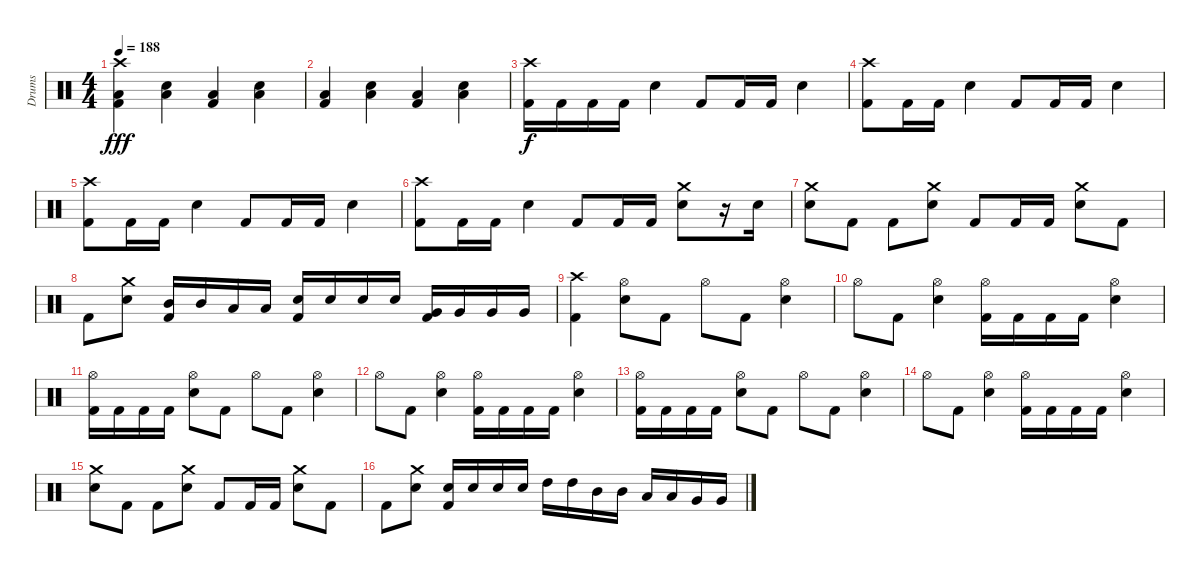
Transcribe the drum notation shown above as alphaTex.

\track ("Drums" "Drums") {instrument percussion}
\staff {score}
\articulation defaults
\ts (4 4)
\tempo 188
\clef neutral
\ks c
("Crash high (hit)" "Low Floor Tom (hit)" "Kick (hit) 2").4{dy fff} ("Electric Snare (hit)" "Low Floor Tom (hit)").4 ("Low Floor Tom (hit)" "Kick (hit) 2").4 ("Electric Snare (hit)" "Low Floor Tom (hit)").4 |
("Low Floor Tom (hit)" "Kick (hit) 2").4 ("Electric Snare (hit)" "Low Floor Tom (hit)").4 ("Low Floor Tom (hit)" "Kick (hit) 2").4 ("Electric Snare (hit)" "Low Floor Tom (hit)").4 |
("Crash high (hit)" "Kick (hit) 2").16{dy f} "Kick (hit) 2".16 "Kick (hit) 2".16 "Kick (hit) 2".16 "Electric Snare (hit)".4 "Kick (hit) 2".8 "Kick (hit) 2".16 "Kick (hit) 2".16 "Electric Snare (hit)".4 |
("Crash high (hit)" "Kick (hit) 2").8 "Kick (hit) 2".16 "Kick (hit) 2".16 "Electric Snare (hit)".4 "Kick (hit) 2".8 "Kick (hit) 2".16 "Kick (hit) 2".16 "Electric Snare (hit)".4 |
("Crash high (hit)" "Kick (hit) 2").8 "Kick (hit) 2".16 "Kick (hit) 2".16 "Electric Snare (hit)".4 "Kick (hit) 2".8 "Kick (hit) 2".16 "Kick (hit) 2".16 "Electric Snare (hit)".4 |
("Crash high (hit)" "Kick (hit) 2").8 "Kick (hit) 2".16 "Kick (hit) 2".16 "Electric Snare (hit)".4 "Kick (hit) 2".8 "Kick (hit) 2".16 "Kick (hit) 2".16 ("Crash medium (hit)" "Electric Snare (hit)").8 r.16 "Electric Snare (hit)".16 |
("Crash medium (hit)" "Electric Snare (hit)").8 "Kick (hit) 2".8 "Kick (hit) 2".8 ("Crash medium (hit)" "Electric Snare (hit)").8 "Kick (hit) 2".8 "Kick (hit) 2".16 "Kick (hit) 2".16 ("Crash medium (hit)" "Electric Snare (hit)").8 "Kick (hit) 2".8 |
"Kick (hit) 2".8 ("Crash medium (hit)" "Electric Snare (hit)").8 ("Mid Tom (hit)" "Kick (hit) 2").16 "Mid Tom (hit)".16 "Low Tom (hit)".16 "Low Tom (hit)".16 ("Electric Snare (hit)" "Kick (hit) 2").16 "Electric Snare (hit)".16 "Electric Snare (hit)".16 "Electric Snare (hit)".16 ("Very Low Tom (hit)" "Kick (hit) 2").16 "Very Low Tom (hit)".16 "Very Low Tom (hit)".16 "Very Low Tom (hit)".16 |
("Crash high (hit)" "Kick (hit) 2").4 ("Hi-Hat (open)" "Electric Snare (hit)").8 "Kick (hit) 2".8 "Hi-Hat (open)".8 "Kick (hit) 2".8 ("Hi-Hat (open)" "Electric Snare (hit)").4 |
"Hi-Hat (open)".8 "Kick (hit) 2".8 ("Hi-Hat (open)" "Electric Snare (hit)").4 ("Hi-Hat (open)" "Kick (hit) 2").16 "Kick (hit) 2".16 "Kick (hit) 2".16 "Kick (hit) 2".16 ("Hi-Hat (open)" "Electric Snare (hit)").4 |
("Hi-Hat (open)" "Kick (hit) 2").16 "Kick (hit) 2".16 "Kick (hit) 2".16 "Kick (hit) 2".16 ("Hi-Hat (open)" "Electric Snare (hit)").8 "Kick (hit) 2".8 "Hi-Hat (open)".8 "Kick (hit) 2".8 ("Hi-Hat (open)" "Electric Snare (hit)").4 |
"Hi-Hat (open)".8 "Kick (hit) 2".8 ("Hi-Hat (open)" "Electric Snare (hit)").4 ("Hi-Hat (open)" "Kick (hit) 2").16 "Kick (hit) 2".16 "Kick (hit) 2".16 "Kick (hit) 2".16 ("Hi-Hat (open)" "Electric Snare (hit)").4 |
("Hi-Hat (open)" "Kick (hit) 2").16 "Kick (hit) 2".16 "Kick (hit) 2".16 "Kick (hit) 2".16 ("Hi-Hat (open)" "Electric Snare (hit)").8 "Kick (hit) 2".8 "Hi-Hat (open)".8 "Kick (hit) 2".8 ("Hi-Hat (open)" "Electric Snare (hit)").4 |
"Hi-Hat (open)".8 "Kick (hit) 2".8 ("Hi-Hat (open)" "Electric Snare (hit)").4 ("Hi-Hat (open)" "Kick (hit) 2").16 "Kick (hit) 2".16 "Kick (hit) 2".16 "Kick (hit) 2".16 ("Hi-Hat (open)" "Electric Snare (hit)").4 |
("Crash medium (hit)" "Electric Snare (hit)").8 "Kick (hit) 2".8 "Kick (hit) 2".8 ("Crash medium (hit)" "Electric Snare (hit)").8 "Kick (hit) 2".8 "Kick (hit) 2".16 "Kick (hit) 2".16 ("Crash medium (hit)" "Electric Snare (hit)").8 "Kick (hit) 2".8 |
"Kick (hit) 2".8 ("Crash medium (hit)" "Electric Snare (hit)").8 ("Electric Snare (hit)" "Kick (hit) 2").16 "Electric Snare (hit)".16 "Electric Snare (hit)".16 "Electric Snare (hit)".16 "High Tom (hit)".16 "High Tom (hit)".16 "Mid Tom (hit)".16 "Mid Tom (hit)".16 "Low Tom (hit)".16 "Low Tom (hit)".16 "Very Low Tom (hit)".16 "Very Low Tom (hit)".16
